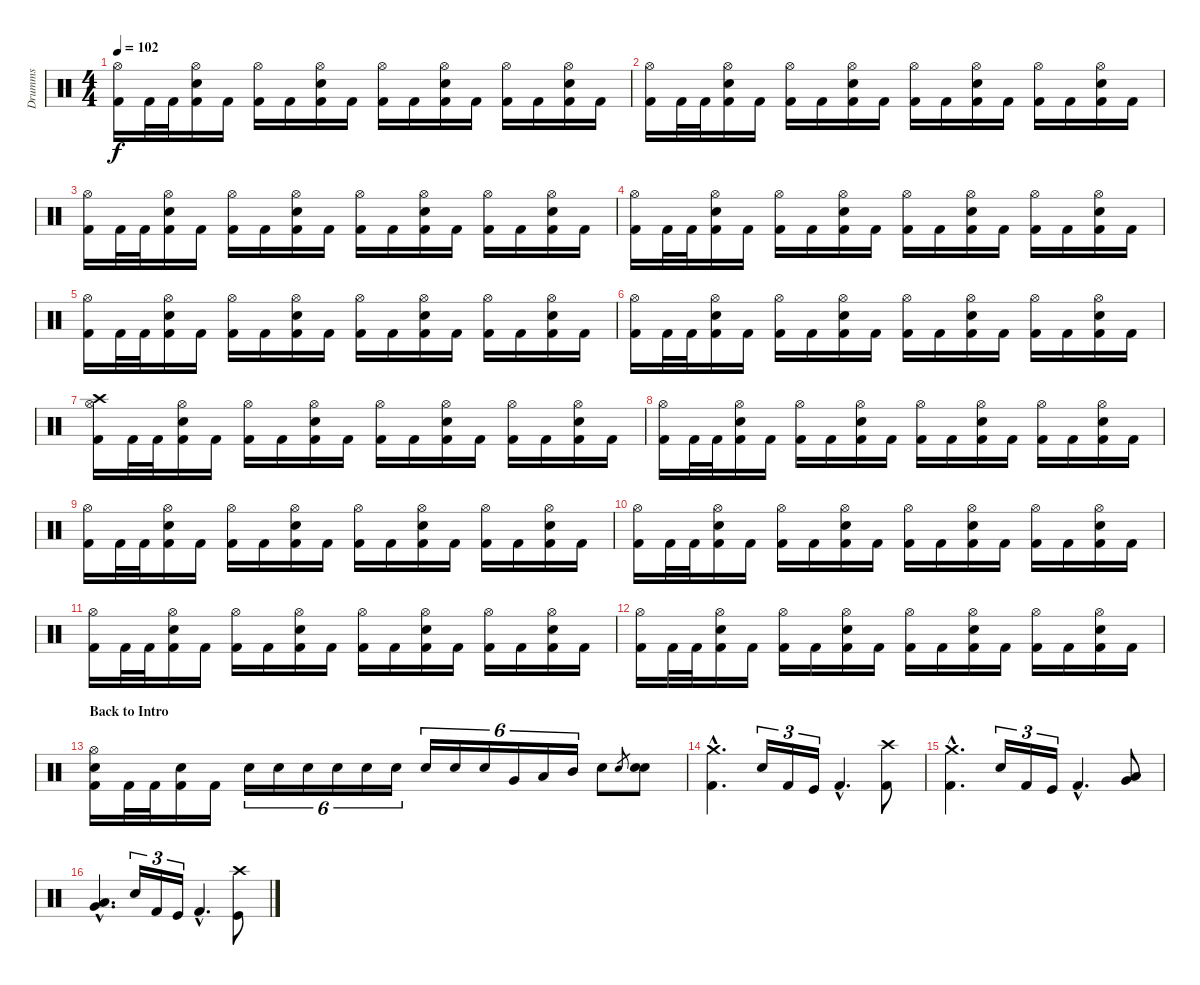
\track ("Drumms" "Drumms") {instrument percussion}
\staff {score}
\articulation defaults
\ts (4 4)
\tempo 102
\clef neutral
\ks c
("Hi-Hat (open)" "Kick (hit) 2").16{dy f} "Kick (hit) 2".32 "Kick (hit) 2".32 ("Hi-Hat (open)" "Snare (hit) 2" "Kick (hit) 2").16 "Kick (hit) 2".16 ("Hi-Hat (open)" "Kick (hit) 2").16 "Kick (hit) 2".16 ("Hi-Hat (open)" "Snare (hit) 2" "Kick (hit) 2").16 "Kick (hit) 2".16 ("Hi-Hat (open)" "Kick (hit) 2").16 "Kick (hit) 2".16 ("Hi-Hat (open)" "Snare (hit) 2" "Kick (hit) 2").16 "Kick (hit) 2".16 ("Hi-Hat (open)" "Kick (hit) 2").16 "Kick (hit) 2".16 ("Hi-Hat (open)" "Snare (hit) 2" "Kick (hit) 2").16 "Kick (hit) 2".16 |
("Hi-Hat (open)" "Kick (hit) 2").16 "Kick (hit) 2".32 "Kick (hit) 2".32 ("Hi-Hat (open)" "Snare (hit) 2" "Kick (hit) 2").16 "Kick (hit) 2".16 ("Hi-Hat (open)" "Kick (hit) 2").16 "Kick (hit) 2".16 ("Hi-Hat (open)" "Snare (hit) 2" "Kick (hit) 2").16 "Kick (hit) 2".16 ("Hi-Hat (open)" "Kick (hit) 2").16 "Kick (hit) 2".16 ("Hi-Hat (open)" "Snare (hit) 2" "Kick (hit) 2").16 "Kick (hit) 2".16 ("Hi-Hat (open)" "Kick (hit) 2").16 "Kick (hit) 2".16 ("Hi-Hat (open)" "Snare (hit) 2" "Kick (hit) 2").16 "Kick (hit) 2".16 |
("Hi-Hat (open)" "Kick (hit) 2").16 "Kick (hit) 2".32 "Kick (hit) 2".32 ("Hi-Hat (open)" "Snare (hit) 2" "Kick (hit) 2").16 "Kick (hit) 2".16 ("Hi-Hat (open)" "Kick (hit) 2").16 "Kick (hit) 2".16 ("Hi-Hat (open)" "Snare (hit) 2" "Kick (hit) 2").16 "Kick (hit) 2".16 ("Hi-Hat (open)" "Kick (hit) 2").16 "Kick (hit) 2".16 ("Hi-Hat (open)" "Snare (hit) 2" "Kick (hit) 2").16 "Kick (hit) 2".16 ("Hi-Hat (open)" "Kick (hit) 2").16 "Kick (hit) 2".16 ("Hi-Hat (open)" "Snare (hit) 2" "Kick (hit) 2").16 "Kick (hit) 2".16 |
("Hi-Hat (open)" "Kick (hit) 2").16 "Kick (hit) 2".32 "Kick (hit) 2".32 ("Hi-Hat (open)" "Snare (hit) 2" "Kick (hit) 2").16 "Kick (hit) 2".16 ("Hi-Hat (open)" "Kick (hit) 2").16 "Kick (hit) 2".16 ("Hi-Hat (open)" "Snare (hit) 2" "Kick (hit) 2").16 "Kick (hit) 2".16 ("Hi-Hat (open)" "Kick (hit) 2").16 "Kick (hit) 2".16 ("Hi-Hat (open)" "Snare (hit) 2" "Kick (hit) 2").16 "Kick (hit) 2".16 ("Hi-Hat (open)" "Kick (hit) 2").16 "Kick (hit) 2".16 ("Hi-Hat (open)" "Snare (hit) 2" "Kick (hit) 2").16 "Kick (hit) 2".16 |
("Hi-Hat (open)" "Kick (hit) 2").16 "Kick (hit) 2".32 "Kick (hit) 2".32 ("Hi-Hat (open)" "Snare (hit) 2" "Kick (hit) 2").16 "Kick (hit) 2".16 ("Hi-Hat (open)" "Kick (hit) 2").16 "Kick (hit) 2".16 ("Hi-Hat (open)" "Snare (hit) 2" "Kick (hit) 2").16 "Kick (hit) 2".16 ("Hi-Hat (open)" "Kick (hit) 2").16 "Kick (hit) 2".16 ("Hi-Hat (open)" "Snare (hit) 2" "Kick (hit) 2").16 "Kick (hit) 2".16 ("Hi-Hat (open)" "Kick (hit) 2").16 "Kick (hit) 2".16 ("Hi-Hat (open)" "Snare (hit) 2" "Kick (hit) 2").16 "Kick (hit) 2".16 |
("Hi-Hat (open)" "Kick (hit) 2").16 "Kick (hit) 2".32 "Kick (hit) 2".32 ("Hi-Hat (open)" "Snare (hit) 2" "Kick (hit) 2").16 "Kick (hit) 2".16 ("Hi-Hat (open)" "Kick (hit) 2").16 "Kick (hit) 2".16 ("Hi-Hat (open)" "Snare (hit) 2" "Kick (hit) 2").16 "Kick (hit) 2".16 ("Hi-Hat (open)" "Kick (hit) 2").16 "Kick (hit) 2".16 ("Hi-Hat (open)" "Snare (hit) 2" "Kick (hit) 2").16 "Kick (hit) 2".16 ("Hi-Hat (open)" "Kick (hit) 2").16 "Kick (hit) 2".16 ("Hi-Hat (open)" "Snare (hit) 2" "Kick (hit) 2").16 "Kick (hit) 2".16 |
("Hi-Hat (open)" "Crash high (hit)" "Kick (hit) 2").16 "Kick (hit) 2".32 "Kick (hit) 2".32 ("Hi-Hat (open)" "Snare (hit) 2" "Kick (hit) 2").16 "Kick (hit) 2".16 ("Hi-Hat (open)" "Kick (hit) 2").16 "Kick (hit) 2".16 ("Hi-Hat (open)" "Snare (hit) 2" "Kick (hit) 2").16 "Kick (hit) 2".16 ("Hi-Hat (open)" "Kick (hit) 2").16 "Kick (hit) 2".16 ("Hi-Hat (open)" "Snare (hit) 2" "Kick (hit) 2").16 "Kick (hit) 2".16 ("Hi-Hat (open)" "Kick (hit) 2").16 "Kick (hit) 2".16 ("Hi-Hat (open)" "Snare (hit) 2" "Kick (hit) 2").16 "Kick (hit) 2".16 |
("Hi-Hat (open)" "Kick (hit) 2").16 "Kick (hit) 2".32 "Kick (hit) 2".32 ("Hi-Hat (open)" "Snare (hit) 2" "Kick (hit) 2").16 "Kick (hit) 2".16 ("Hi-Hat (open)" "Kick (hit) 2").16 "Kick (hit) 2".16 ("Hi-Hat (open)" "Snare (hit) 2" "Kick (hit) 2").16 "Kick (hit) 2".16 ("Hi-Hat (open)" "Kick (hit) 2").16 "Kick (hit) 2".16 ("Hi-Hat (open)" "Snare (hit) 2" "Kick (hit) 2").16 "Kick (hit) 2".16 ("Hi-Hat (open)" "Kick (hit) 2").16 "Kick (hit) 2".16 ("Hi-Hat (open)" "Snare (hit) 2" "Kick (hit) 2").16 "Kick (hit) 2".16 |
("Hi-Hat (open)" "Kick (hit) 2").16 "Kick (hit) 2".32 "Kick (hit) 2".32 ("Hi-Hat (open)" "Snare (hit) 2" "Kick (hit) 2").16 "Kick (hit) 2".16 ("Hi-Hat (open)" "Kick (hit) 2").16 "Kick (hit) 2".16 ("Hi-Hat (open)" "Snare (hit) 2" "Kick (hit) 2").16 "Kick (hit) 2".16 ("Hi-Hat (open)" "Kick (hit) 2").16 "Kick (hit) 2".16 ("Hi-Hat (open)" "Snare (hit) 2" "Kick (hit) 2").16 "Kick (hit) 2".16 ("Hi-Hat (open)" "Kick (hit) 2").16 "Kick (hit) 2".16 ("Hi-Hat (open)" "Snare (hit) 2" "Kick (hit) 2").16 "Kick (hit) 2".16 |
("Hi-Hat (open)" "Kick (hit) 2").16 "Kick (hit) 2".32 "Kick (hit) 2".32 ("Hi-Hat (open)" "Snare (hit) 2" "Kick (hit) 2").16 "Kick (hit) 2".16 ("Hi-Hat (open)" "Kick (hit) 2").16 "Kick (hit) 2".16 ("Hi-Hat (open)" "Snare (hit) 2" "Kick (hit) 2").16 "Kick (hit) 2".16 ("Hi-Hat (open)" "Kick (hit) 2").16 "Kick (hit) 2".16 ("Hi-Hat (open)" "Snare (hit) 2" "Kick (hit) 2").16 "Kick (hit) 2".16 ("Hi-Hat (open)" "Kick (hit) 2").16 "Kick (hit) 2".16 ("Hi-Hat (open)" "Snare (hit) 2" "Kick (hit) 2").16 "Kick (hit) 2".16 |
("Hi-Hat (open)" "Kick (hit) 2").16 "Kick (hit) 2".32 "Kick (hit) 2".32 ("Hi-Hat (open)" "Snare (hit) 2" "Kick (hit) 2").16 "Kick (hit) 2".16 ("Hi-Hat (open)" "Kick (hit) 2").16 "Kick (hit) 2".16 ("Hi-Hat (open)" "Snare (hit) 2" "Kick (hit) 2").16 "Kick (hit) 2".16 ("Hi-Hat (open)" "Kick (hit) 2").16 "Kick (hit) 2".16 ("Hi-Hat (open)" "Snare (hit) 2" "Kick (hit) 2").16 "Kick (hit) 2".16 ("Hi-Hat (open)" "Kick (hit) 2").16 "Kick (hit) 2".16 ("Hi-Hat (open)" "Snare (hit) 2" "Kick (hit) 2").16 "Kick (hit) 2".16 |
("Hi-Hat (open)" "Kick (hit) 2").16 "Kick (hit) 2".32 "Kick (hit) 2".32 ("Hi-Hat (open)" "Snare (hit) 2" "Kick (hit) 2").16 "Kick (hit) 2".16 ("Hi-Hat (open)" "Kick (hit) 2").16 "Kick (hit) 2".16 ("Hi-Hat (open)" "Snare (hit) 2" "Kick (hit) 2").16 "Kick (hit) 2".16 ("Hi-Hat (open)" "Kick (hit) 2").16 "Kick (hit) 2".16 ("Hi-Hat (open)" "Snare (hit) 2" "Kick (hit) 2").16 "Kick (hit) 2".16 ("Hi-Hat (open)" "Kick (hit) 2").16 "Kick (hit) 2".16 ("Hi-Hat (open)" "Snare (hit) 2" "Kick (hit) 2").16 "Kick (hit) 2".16 |
\section ("" "Back to Intro")
("Hi-Hat (open)" "Snare (hit) 2" "Kick (hit) 2").16 "Kick (hit) 2".32 "Kick (hit) 2".32 ("Snare (hit) 2" "Kick (hit) 2").16 "Kick (hit) 2".16 "Snare (hit) 2".16{tu (6 4)} "Snare (hit) 2".16{tu (6 4)} "Snare (hit) 2".16{tu (6 4)} "Snare (hit) 2".16{tu (6 4)} "Snare (hit) 2".16{tu (6 4)} "Snare (hit) 2".16{tu (6 4)} "Snare (hit) 2".16{tu (6 4)} "Snare (hit) 2".16{tu (6 4)} "Snare (hit) 2".16{tu (6 4)} "Very Low Tom (hit)".16{tu (6 4)} "Low Tom (hit)".16{tu (6 4)} "Mid Tom (hit)".16{tu (6 4)} "Snare (hit) 2".8 "Electric Snare (hit)".8{gr} ("Electric Snare (hit)" "Snare (hit) 2").8 |
("Crash medium (hit)"{hac} "Kick (hit) 2"{hac}).4{d} "Snare (hit) 2".16{tu (3 2)} "Kick (hit) 2".16{tu (3 2)} "Kick (hit)".16{tu (3 2)} "Kick (hit) 2"{hac}.4{d} ("Crash high (hit)" "Kick (hit) 2").8 |
("Crash medium (hit)"{hac} "Kick (hit) 2"{hac}).4{d} "Snare (hit) 2".16{tu (3 2)} "Kick (hit) 2".16{tu (3 2)} "Kick (hit)".16{tu (3 2)} "Kick (hit) 2"{hac}.4{d} ("Very Low Tom (hit)" "Low Tom (hit)").8 |
("Very Low Tom (hit)"{hac} "Low Tom (hit)"{hac}).4{d} "Snare (hit) 2".16{tu (3 2)} "Kick (hit) 2".16{tu (3 2)} "Kick (hit)".16{tu (3 2)} "Kick (hit) 2"{hac}.4{d} ("Crash high (hit)" "Kick (hit)").8
